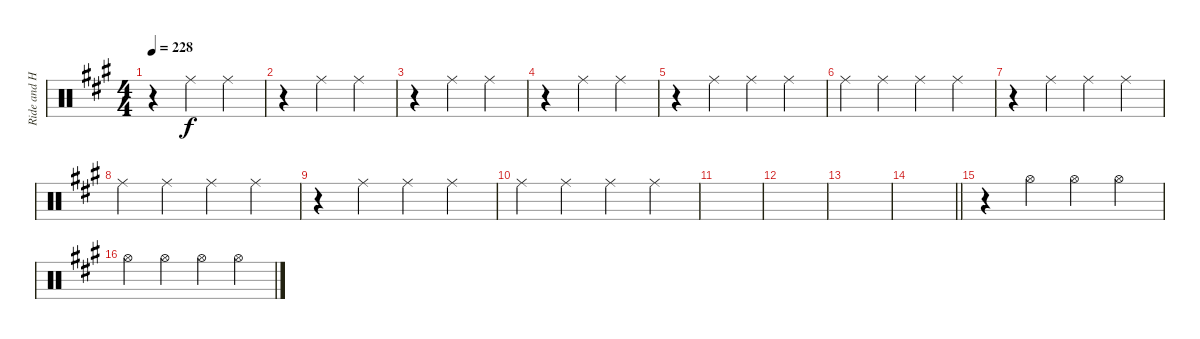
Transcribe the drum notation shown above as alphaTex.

\track ("Ride and Hi Hat" "Ride and H") {instrument percussion}
\staff {score}
\articulation defaults
\ts (4 4)
\tempo 228
\clef neutral
\ks a
r.4{dy f} "Ride (middle)".4 "Ride (middle)".4 |
r.4 "Ride (middle)".4 "Ride (middle)".4 |
r.4 "Ride (middle)".4 "Ride (middle)".4 |
r.4 "Ride (middle)".4 "Ride (middle)".4 |
r.4 "Ride (middle)".4 "Ride (middle)".4 "Ride (middle)".4 |
"Ride (middle)".4 "Ride (middle)".4 "Ride (middle)".4 "Ride (middle)".4 |
r.4 "Ride (middle)".4 "Ride (middle)".4 "Ride (middle)".4 |
"Ride (middle)".4 "Ride (middle)".4 "Ride (middle)".4 "Ride (middle)".4 |
r.4 "Ride (middle)".4 "Ride (middle)".4 "Ride (middle)".4 |
"Ride (middle)".4 "Ride (middle)".4 "Ride (middle)".4 "Ride (middle)".4 |
|
|
|
\barLineRight lightlight
|
r.4 "Hi-Hat (open)".4 "Hi-Hat (open)".4 "Hi-Hat (open)".4 |
"Hi-Hat (open)".4 "Hi-Hat (open)".4 "Hi-Hat (open)".4 "Hi-Hat (open)".4
